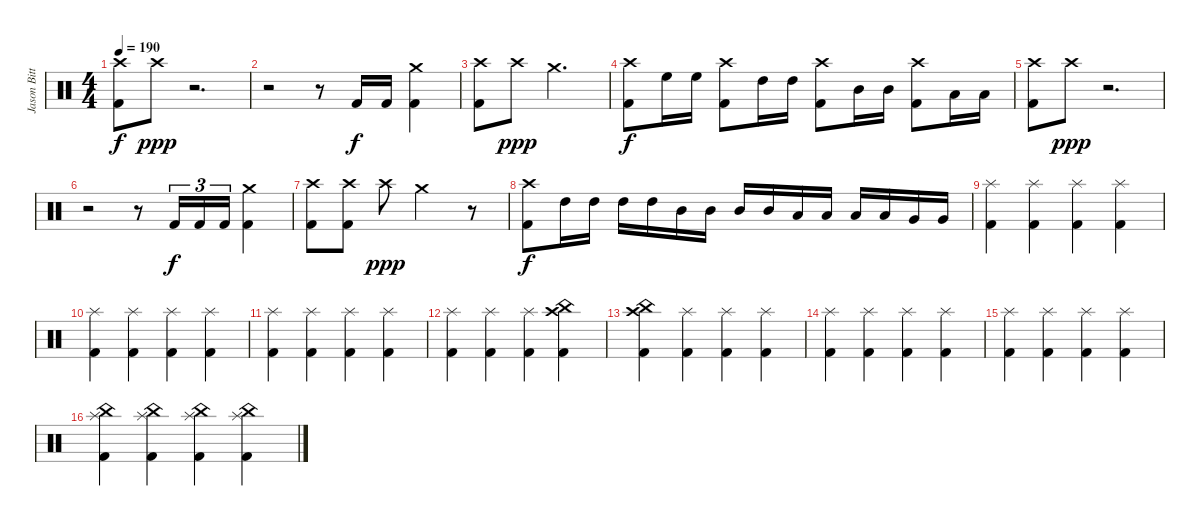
\track ("Jason Bittner" "Jason Bitt") {instrument percussion}
\staff {score}
\articulation defaults
\ts (4 4)
\tempo 190
\clef neutral
\ks c
("Crash high (hit)" "Kick (hit) 2").8{dy f} "Crash high (hit)".8{dy ppp} r.2{d} |
r.2 r.8 "Kick (hit) 2".16{dy f} "Kick (hit) 2".16 ("Crash medium (hit)" "Kick (hit) 2").4 |
("Crash high (hit)" "Kick (hit) 2").8 "Crash high (hit)".8{dy ppp} "Crash medium (hit)".2{d} |
("Crash high (hit)" "Kick (hit) 2").8{dy f} "High Floor Tom (hit)".16 "High Floor Tom (hit)".16 ("Crash high (hit)" "Kick (hit) 2").8 "High Tom (hit)".16 "High Tom (hit)".16 ("Crash high (hit)" "Kick (hit) 2").8 "Mid Tom (hit)".16 "Mid Tom (hit)".16 ("Crash high (hit)" "Kick (hit) 2").8 "Low Tom (hit)".16 "Low Tom (hit)".16 |
("Crash high (hit)" "Kick (hit) 2").8 "Crash high (hit)".8{dy ppp} r.2{d} |
r.2 r.8 "Kick (hit) 2".16{tu (3 2) dy f} "Kick (hit) 2".16{tu (3 2)} "Kick (hit) 2".16{tu (3 2)} ("Crash medium (hit)" "Kick (hit) 2").4 |
("Crash high (hit)" "Kick (hit) 2").8 ("Crash high (hit)" "Kick (hit) 2").8 "Crash high (hit)".8{dy ppp} "Crash medium (hit)".2 r.8 |
("Crash high (hit)" "Kick (hit) 2").8{dy f} "High Tom (hit)".16 "High Tom (hit)".16 "High Tom (hit)".16 "High Tom (hit)".16 "Mid Tom (hit)".16 "Mid Tom (hit)".16 "Mid Tom (hit)".16 "Mid Tom (hit)".16 "Low Tom (hit)".16 "Low Tom (hit)".16 "Low Tom (hit)".16 "Low Tom (hit)".16 "Very Low Tom (hit)".16 "Very Low Tom (hit)".16 |
("Splash (hit)" "Kick (hit) 2").4 ("Splash (hit)" "Kick (hit) 2").4 ("Splash (hit)" "Kick (hit) 2").4 ("Splash (hit)" "Kick (hit) 2").4 |
("Splash (hit)" "Kick (hit) 2").4 ("Splash (hit)" "Kick (hit) 2").4 ("Splash (hit)" "Kick (hit) 2").4 ("Splash (hit)" "Kick (hit) 2").4 |
("Splash (hit)" "Kick (hit) 2").4 ("Splash (hit)" "Kick (hit) 2").4 ("Splash (hit)" "Kick (hit) 2").4 ("Splash (hit)" "Kick (hit) 2").4 |
("Splash (hit)" "Kick (hit) 2").4 ("Splash (hit)" "Kick (hit) 2").4 ("Splash (hit)" "Kick (hit) 2").4 ("China (hit)" "Crash high (hit)" "Kick (hit) 2").4 |
("China (hit)" "Crash high (hit)" "Kick (hit) 2").4 ("Splash (hit)" "Kick (hit) 2").4 ("Splash (hit)" "Kick (hit) 2").4 ("Splash (hit)" "Kick (hit) 2").4 |
("Splash (hit)" "Kick (hit) 2").4 ("Splash (hit)" "Kick (hit) 2").4 ("Splash (hit)" "Kick (hit) 2").4 ("Splash (hit)" "Kick (hit) 2").4 |
("Splash (hit)" "Kick (hit) 2").4 ("Splash (hit)" "Kick (hit) 2").4 ("Splash (hit)" "Kick (hit) 2").4 ("Splash (hit)" "Kick (hit) 2").4 |
("China (hit)" "Splash (hit)" "Kick (hit) 2").4 ("China (hit)" "Splash (hit)" "Kick (hit) 2").4 ("China (hit)" "Splash (hit)" "Kick (hit) 2").4 ("China (hit)" "Splash (hit)" "Kick (hit) 2").4
